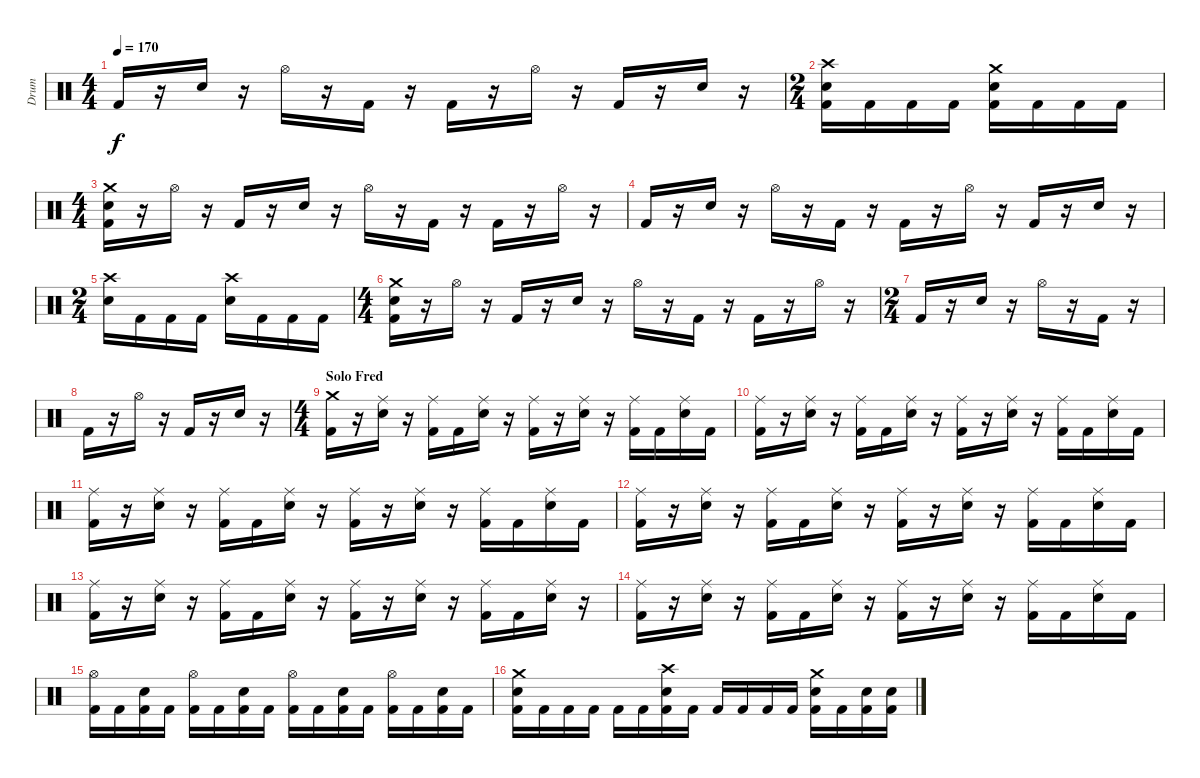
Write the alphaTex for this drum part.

\track ("Drum" "Drum") {instrument percussion}
\staff {score}
\articulation defaults
\ts (4 4)
\tempo 170
\clef neutral
\ks c "Kick (hit) 2".16{dy f}
r.16 "Electric Snare (hit)".16 r.16 "Hi-Hat (open)".16 r.16 "Kick (hit) 2".16 r.16 "Kick (hit) 2".16 r.16 "Hi-Hat (open)".16 r.16 "Kick (hit) 2".16 r.16 "Electric Snare (hit)".16 r.16 |
\ts (2 4)
("Electric Snare (hit)" "Kick (hit) 2" "Crash high (hit)").16 "Kick (hit) 2".16 "Kick (hit) 2".16 "Kick (hit) 2".16 ("Kick (hit) 2" "Electric Snare (hit)" "Crash medium (hit)").16 "Kick (hit) 2".16 "Kick (hit) 2".16 "Kick (hit) 2".16 |
\ts (4 4)
("Electric Snare (hit)" "Kick (hit) 2" "Crash medium (hit)").16 r.16 "Hi-Hat (open)".16 r.16 "Kick (hit) 2".16 r.16 "Electric Snare (hit)".16 r.16 "Hi-Hat (open)".16 r.16 "Kick (hit) 2".16 r.16 "Kick (hit) 2".16 r.16 "Hi-Hat (open)".16 r.16 |
"Kick (hit) 2".16 r.16 "Electric Snare (hit)".16 r.16 "Hi-Hat (open)".16 r.16 "Kick (hit) 2".16 r.16 "Kick (hit) 2".16 r.16 "Hi-Hat (open)".16 r.16 "Kick (hit) 2".16 r.16 "Electric Snare (hit)".16 r.16 |
\ts (2 4)
("Electric Snare (hit)" "Crash high (hit)").16 "Kick (hit) 2".16 "Kick (hit) 2".16 "Kick (hit) 2".16 ("Electric Snare (hit)" "Crash high (hit)").16 "Kick (hit) 2".16 "Kick (hit) 2".16 "Kick (hit) 2".16 |
\ts (4 4)
("Electric Snare (hit)" "Kick (hit) 2" "Crash medium (hit)").16 r.16 "Hi-Hat (open)".16 r.16 "Kick (hit) 2".16 r.16 "Electric Snare (hit)".16 r.16 "Hi-Hat (open)".16 r.16 "Kick (hit) 2".16 r.16 "Kick (hit) 2".16 r.16 "Hi-Hat (open)".16 r.16 |
\ts (2 4)
"Kick (hit) 2".16 r.16 "Electric Snare (hit)".16 r.16 "Hi-Hat (open)".16 r.16 "Kick (hit) 2".16 r.16 |
"Kick (hit) 2".16 r.16 "Hi-Hat (open)".16 r.16 "Kick (hit) 2".16 r.16 "Electric Snare (hit)".16 r.16 |
\ts (4 4)
\section ("" "Solo Fred")
("Kick (hit) 2" "Crash medium (hit)").16 r.16 ("Electric Snare (hit)" "Ride (middle)").16 r.16 ("Kick (hit) 2" "Ride (middle)").16 "Kick (hit) 2".16 ("Electric Snare (hit)" "Ride (middle)").16 r.16 ("Kick (hit) 2" "Ride (middle)").16 r.16 ("Electric Snare (hit)" "Ride (middle)").16 r.16 ("Kick (hit) 2" "Ride (middle)").16 "Kick (hit) 2".16 ("Electric Snare (hit)" "Ride (middle)").16 "Kick (hit) 2".16 |
("Kick (hit) 2" "Ride (middle)").16 r.16 ("Electric Snare (hit)" "Ride (middle)").16 r.16 ("Kick (hit) 2" "Ride (middle)").16 "Kick (hit) 2".16 ("Electric Snare (hit)" "Ride (middle)").16 r.16 ("Kick (hit) 2" "Ride (middle)").16 r.16 ("Electric Snare (hit)" "Ride (middle)").16 r.16 ("Kick (hit) 2" "Ride (middle)").16 "Kick (hit) 2".16 ("Electric Snare (hit)" "Ride (middle)").16 "Kick (hit) 2".16 |
("Kick (hit) 2" "Ride (middle)").16 r.16 ("Electric Snare (hit)" "Ride (middle)").16 r.16 ("Kick (hit) 2" "Ride (middle)").16 "Kick (hit) 2".16 ("Electric Snare (hit)" "Ride (middle)").16 r.16 ("Kick (hit) 2" "Ride (middle)").16 r.16 ("Electric Snare (hit)" "Ride (middle)").16 r.16 ("Kick (hit) 2" "Ride (middle)").16 "Kick (hit) 2".16 ("Electric Snare (hit)" "Ride (middle)").16 "Kick (hit) 2".16 |
("Kick (hit) 2" "Ride (middle)").16 r.16 ("Electric Snare (hit)" "Ride (middle)").16 r.16 ("Kick (hit) 2" "Ride (middle)").16 "Kick (hit) 2".16 ("Electric Snare (hit)" "Ride (middle)").16 r.16 ("Kick (hit) 2" "Ride (middle)").16 r.16 ("Electric Snare (hit)" "Ride (middle)").16 r.16 ("Kick (hit) 2" "Ride (middle)").16 "Kick (hit) 2".16 ("Electric Snare (hit)" "Ride (middle)").16 "Kick (hit) 2".16 |
("Kick (hit) 2" "Ride (middle)").16 r.16 ("Electric Snare (hit)" "Ride (middle)").16 r.16 ("Kick (hit) 2" "Ride (middle)").16 "Kick (hit) 2".16 ("Electric Snare (hit)" "Ride (middle)").16 r.16 ("Kick (hit) 2" "Ride (middle)").16 r.16 ("Electric Snare (hit)" "Ride (middle)").16 r.16 ("Kick (hit) 2" "Ride (middle)").16 "Kick (hit) 2".16 ("Electric Snare (hit)" "Ride (middle)").16 r.16 |
("Kick (hit) 2" "Ride (middle)").16 r.16 ("Electric Snare (hit)" "Ride (middle)").16 r.16 ("Kick (hit) 2" "Ride (middle)").16 "Kick (hit) 2".16 ("Electric Snare (hit)" "Ride (middle)").16 r.16 ("Kick (hit) 2" "Ride (middle)").16 r.16 ("Electric Snare (hit)" "Ride (middle)").16 r.16 ("Kick (hit) 2" "Ride (middle)").16 "Kick (hit) 2".16 ("Electric Snare (hit)" "Ride (middle)").16 "Kick (hit) 2".16 |
("Kick (hit) 2" "Hi-Hat (open)").16 "Kick (hit) 2".16 ("Kick (hit) 2" "Electric Snare (hit)").16 "Kick (hit) 2".16 ("Kick (hit) 2" "Hi-Hat (open)").16 "Kick (hit) 2".16 ("Electric Snare (hit)" "Kick (hit) 2").16 "Kick (hit) 2".16 ("Kick (hit) 2" "Hi-Hat (open)").16 "Kick (hit) 2".16 ("Kick (hit) 2" "Electric Snare (hit)").16 "Kick (hit) 2".16 ("Kick (hit) 2" "Hi-Hat (open)").16 "Kick (hit) 2".16 ("Electric Snare (hit)" "Kick (hit) 2").16 "Kick (hit) 2".16 |
("Electric Snare (hit)" "Kick (hit) 2" "Crash medium (hit)").16 "Kick (hit) 2".16 "Kick (hit) 2".16 "Kick (hit) 2".16 "Kick (hit) 2".16 "Kick (hit) 2".16 ("Kick (hit) 2" "Electric Snare (hit)" "Crash high (hit)").16 "Kick (hit) 2".16 "Kick (hit) 2".16 "Kick (hit) 2".16 "Kick (hit) 2".16 "Kick (hit) 2".16 ("Kick (hit) 2" "Electric Snare (hit)" "Crash medium (hit)").16 "Kick (hit) 2".16 ("Kick (hit) 2" "Electric Snare (hit)").16 ("Electric Snare (hit)" "Kick (hit) 2").16
